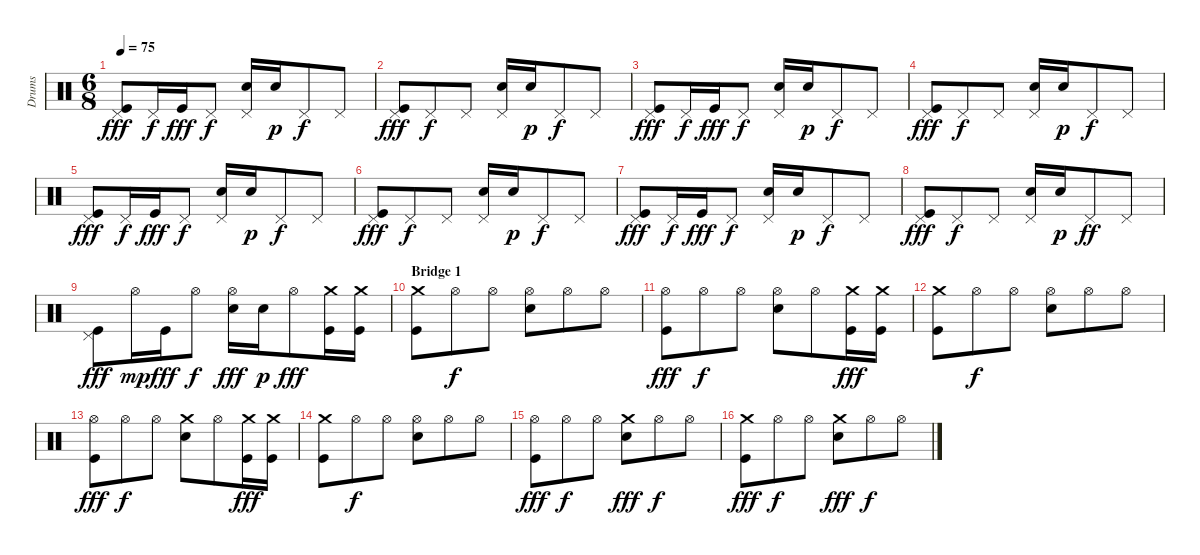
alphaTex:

\track ("Drums" "Drums") {instrument percussion}
\staff {score}
\articulation defaults
\ts (6 8)
\tempo 75
\clef neutral
\ks c
("Pedal Hi-Hat (hit)" "Kick (hit)").8{dy fff} "Pedal Hi-Hat (hit)".16{dy f} "Kick (hit)".16{dy fff} "Pedal Hi-Hat (hit)".8{dy f} ("Pedal Hi-Hat (hit)" "Snare (hit) 2").16 "Snare (hit) 2".16{dy p} "Pedal Hi-Hat (hit)".8{dy f} "Pedal Hi-Hat (hit)".8 |
("Pedal Hi-Hat (hit)" "Kick (hit)").8{dy fff} "Pedal Hi-Hat (hit)".8{dy f} "Pedal Hi-Hat (hit)".8 ("Pedal Hi-Hat (hit)" "Snare (hit) 2").16 "Snare (hit) 2".16{dy p} "Pedal Hi-Hat (hit)".8{dy f} "Pedal Hi-Hat (hit)".8 |
("Pedal Hi-Hat (hit)" "Kick (hit)").8{dy fff} "Pedal Hi-Hat (hit)".16{dy f} "Kick (hit)".16{dy fff} "Pedal Hi-Hat (hit)".8{dy f} ("Pedal Hi-Hat (hit)" "Snare (hit) 2").16 "Snare (hit) 2".16{dy p} "Pedal Hi-Hat (hit)".8{dy f} "Pedal Hi-Hat (hit)".8 |
("Pedal Hi-Hat (hit)" "Kick (hit)").8{dy fff} "Pedal Hi-Hat (hit)".8{dy f} "Pedal Hi-Hat (hit)".8 ("Pedal Hi-Hat (hit)" "Snare (hit) 2").16 "Snare (hit) 2".16{dy p} "Pedal Hi-Hat (hit)".8{dy f} "Pedal Hi-Hat (hit)".8 |
("Pedal Hi-Hat (hit)" "Kick (hit)").8{dy fff} "Pedal Hi-Hat (hit)".16{dy f} "Kick (hit)".16{dy fff} "Pedal Hi-Hat (hit)".8{dy f} ("Pedal Hi-Hat (hit)" "Snare (hit) 2").16 "Snare (hit) 2".16{dy p} "Pedal Hi-Hat (hit)".8{dy f} "Pedal Hi-Hat (hit)".8 |
("Pedal Hi-Hat (hit)" "Kick (hit)").8{dy fff} "Pedal Hi-Hat (hit)".8{dy f} "Pedal Hi-Hat (hit)".8 ("Pedal Hi-Hat (hit)" "Snare (hit) 2").16 "Snare (hit) 2".16{dy p} "Pedal Hi-Hat (hit)".8{dy f} "Pedal Hi-Hat (hit)".8 |
("Pedal Hi-Hat (hit)" "Kick (hit)").8{dy fff} "Pedal Hi-Hat (hit)".16{dy f} "Kick (hit)".16{dy fff} "Pedal Hi-Hat (hit)".8{dy f} ("Pedal Hi-Hat (hit)" "Snare (hit) 2").16 "Snare (hit) 2".16{dy p} "Pedal Hi-Hat (hit)".8{dy f} "Pedal Hi-Hat (hit)".8 |
("Pedal Hi-Hat (hit)" "Kick (hit)").8{dy fff} "Pedal Hi-Hat (hit)".8{dy f} "Pedal Hi-Hat (hit)".8 ("Pedal Hi-Hat (hit)" "Snare (hit) 2").16 "Snare (hit) 2".16{dy p} "Pedal Hi-Hat (hit)".8{dy ff} "Pedal Hi-Hat (hit)".8 |
("Pedal Hi-Hat (hit)" "Kick (hit)").8{dy fff} "Hi-Hat (open)".16{dy mp} "Kick (hit)".16{dy fff} "Hi-Hat (open)".8{dy f} ("Hi-Hat (open)" "Snare (hit) 2").16{dy fff} "Snare (hit) 2".16{dy p} "Hi-Hat (open)".8{dy fff} ("Crash medium (hit)" "Kick (hit)").16 ("Crash medium (hit)" "Kick (hit)").16 |
\section ("" "Bridge 1")
("Crash medium (hit)" "Kick (hit)").8 "Hi-Hat (open)".8{dy f} "Hi-Hat (open)".8 ("Hi-Hat (open)" "Snare (hit) 2").8 "Hi-Hat (open)".8 "Hi-Hat (open)".8 |
("Hi-Hat (open)" "Kick (hit)").8{dy fff} "Hi-Hat (open)".8{dy f} "Hi-Hat (open)".8 ("Hi-Hat (open)" "Snare (hit) 2").8 "Hi-Hat (open)".8 ("Crash medium (hit)" "Kick (hit)").16{dy fff} ("Crash medium (hit)" "Kick (hit)").16 |
("Crash medium (hit)" "Kick (hit)").8 "Hi-Hat (open)".8{dy f} "Hi-Hat (open)".8 ("Hi-Hat (open)" "Snare (hit) 2").8 "Hi-Hat (open)".8 "Hi-Hat (open)".8 |
("Hi-Hat (open)" "Kick (hit)").8{dy fff} "Hi-Hat (open)".8{dy f} "Hi-Hat (open)".8 ("Crash medium (hit)" "Snare (hit) 2").8 "Hi-Hat (open)".8 ("Crash medium (hit)" "Kick (hit)").16{dy fff} ("Crash medium (hit)" "Kick (hit)").16 |
("Crash medium (hit)" "Kick (hit)").8 "Hi-Hat (open)".8{dy f} "Hi-Hat (open)".8 ("Hi-Hat (open)" "Snare (hit) 2").8 "Hi-Hat (open)".8 "Hi-Hat (open)".8 |
("Hi-Hat (open)" "Kick (hit)").8{dy fff} "Hi-Hat (open)".8{dy f} "Hi-Hat (open)".8 ("Crash medium (hit)" "Snare (hit) 2").8{dy fff} "Hi-Hat (open)".8{dy f} "Hi-Hat (open)".8 |
("Crash medium (hit)" "Kick (hit)").8{dy fff} "Hi-Hat (open)".8{dy f} "Hi-Hat (open)".8 ("Crash medium (hit)" "Snare (hit) 2").8{dy fff} "Hi-Hat (open)".8{dy f} "Hi-Hat (open)".8
